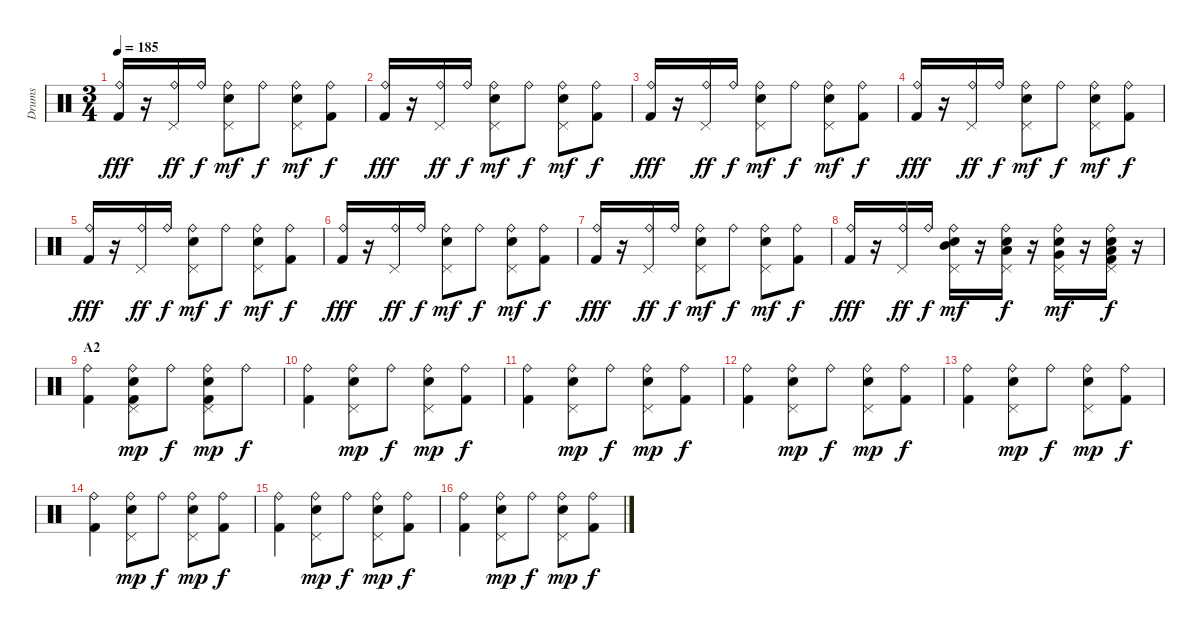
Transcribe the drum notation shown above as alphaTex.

\track ("Drums" "Drums") {instrument percussion}
\staff {score}
\articulation defaults
\ts (3 4)
\tempo 185
\clef neutral
\ks c
("Ride (bell)" "Kick (hit) 2").16{dy fff} r.16 ("Ride (bell)" "Pedal Hi-Hat (hit)").16{dy ff} "Ride (bell)".16{dy f} ("Ride (bell)" "Pedal Hi-Hat (hit)" "Electric Snare (hit)").8{dy mf} "Ride (bell)".8{dy f} ("Ride (bell)" "Pedal Hi-Hat (hit)" "Electric Snare (hit)").8{dy mf} ("Ride (bell)" "Kick (hit) 2").8{dy f} |
("Ride (bell)" "Kick (hit) 2").16{dy fff} r.16 ("Ride (bell)" "Pedal Hi-Hat (hit)").16{dy ff} "Ride (bell)".16{dy f} ("Ride (bell)" "Pedal Hi-Hat (hit)" "Electric Snare (hit)").8{dy mf} "Ride (bell)".8{dy f} ("Ride (bell)" "Pedal Hi-Hat (hit)" "Electric Snare (hit)").8{dy mf} ("Ride (bell)" "Kick (hit) 2").8{dy f} |
("Ride (bell)" "Kick (hit) 2").16{dy fff} r.16 ("Ride (bell)" "Pedal Hi-Hat (hit)").16{dy ff} "Ride (bell)".16{dy f} ("Ride (bell)" "Pedal Hi-Hat (hit)" "Electric Snare (hit)").8{dy mf} "Ride (bell)".8{dy f} ("Ride (bell)" "Pedal Hi-Hat (hit)" "Electric Snare (hit)").8{dy mf} ("Ride (bell)" "Kick (hit) 2").8{dy f} |
("Ride (bell)" "Kick (hit) 2").16{dy fff} r.16 ("Ride (bell)" "Pedal Hi-Hat (hit)").16{dy ff} "Ride (bell)".16{dy f} ("Ride (bell)" "Pedal Hi-Hat (hit)" "Electric Snare (hit)").8{dy mf} "Ride (bell)".8{dy f} ("Ride (bell)" "Pedal Hi-Hat (hit)" "Electric Snare (hit)").8{dy mf} ("Ride (bell)" "Kick (hit) 2").8{dy f} |
("Ride (bell)" "Kick (hit) 2").16{dy fff} r.16 ("Ride (bell)" "Pedal Hi-Hat (hit)").16{dy ff} "Ride (bell)".16{dy f} ("Ride (bell)" "Pedal Hi-Hat (hit)" "Electric Snare (hit)").8{dy mf} "Ride (bell)".8{dy f} ("Ride (bell)" "Pedal Hi-Hat (hit)" "Electric Snare (hit)").8{dy mf} ("Ride (bell)" "Kick (hit) 2").8{dy f} |
("Ride (bell)" "Kick (hit) 2").16{dy fff} r.16 ("Ride (bell)" "Pedal Hi-Hat (hit)").16{dy ff} "Ride (bell)".16{dy f} ("Ride (bell)" "Pedal Hi-Hat (hit)" "Electric Snare (hit)").8{dy mf} "Ride (bell)".8{dy f} ("Ride (bell)" "Pedal Hi-Hat (hit)" "Electric Snare (hit)").8{dy mf} ("Ride (bell)" "Kick (hit) 2").8{dy f} |
("Ride (bell)" "Kick (hit) 2").16{dy fff} r.16 ("Ride (bell)" "Pedal Hi-Hat (hit)").16{dy ff} "Ride (bell)".16{dy f} ("Ride (bell)" "Pedal Hi-Hat (hit)" "Electric Snare (hit)").8{dy mf} "Ride (bell)".8{dy f} ("Ride (bell)" "Pedal Hi-Hat (hit)" "Electric Snare (hit)").8{dy mf} ("Ride (bell)" "Kick (hit) 2").8{dy f} |
("Ride (bell)" "Kick (hit) 2").16{dy fff} r.16 ("Ride (bell)" "Pedal Hi-Hat (hit)").16{dy ff} "Ride (bell)".16{dy f} ("Ride (bell)" "Pedal Hi-Hat (hit)" "Mid Tom (hit)" "Electric Snare (hit)").16{dy mf} r.16 ("Ride (bell)" "Pedal Hi-Hat (hit)" "Low Tom (hit)" "Electric Snare (hit)").16{dy f} r.16 ("Ride (bell)" "Pedal Hi-Hat (hit)" "Very Low Tom (hit)" "Electric Snare (hit)").16{dy mf} r.16 ("Ride (bell)" "Pedal Hi-Hat (hit)" "Low Floor Tom (hit)" "Electric Snare (hit)" "Kick (hit) 2").16{dy f} r.16 |
\section ("" "A2")
("Ride (bell)" "Kick (hit) 2").4 ("Ride (bell)" "Pedal Hi-Hat (hit)" "Electric Snare (hit)" "Kick (hit) 2").8{dy mp} "Ride (bell)".8{dy f} ("Ride (bell)" "Pedal Hi-Hat (hit)" "Electric Snare (hit)" "Kick (hit) 2").8{dy mp} "Ride (bell)".8{dy f} |
("Ride (bell)" "Kick (hit) 2").4 ("Ride (bell)" "Pedal Hi-Hat (hit)" "Electric Snare (hit)").8{dy mp} "Ride (bell)".8{dy f} ("Ride (bell)" "Pedal Hi-Hat (hit)" "Electric Snare (hit)").8{dy mp} ("Ride (bell)" "Kick (hit) 2").8{dy f} |
("Ride (bell)" "Kick (hit) 2").4 ("Ride (bell)" "Pedal Hi-Hat (hit)" "Electric Snare (hit)").8{dy mp} "Ride (bell)".8{dy f} ("Ride (bell)" "Pedal Hi-Hat (hit)" "Electric Snare (hit)").8{dy mp} ("Ride (bell)" "Kick (hit) 2").8{dy f} |
("Ride (bell)" "Kick (hit) 2").4 ("Ride (bell)" "Pedal Hi-Hat (hit)" "Electric Snare (hit)").8{dy mp} "Ride (bell)".8{dy f} ("Ride (bell)" "Pedal Hi-Hat (hit)" "Electric Snare (hit)").8{dy mp} ("Ride (bell)" "Kick (hit) 2").8{dy f} |
("Ride (bell)" "Kick (hit) 2").4 ("Ride (bell)" "Pedal Hi-Hat (hit)" "Electric Snare (hit)").8{dy mp} "Ride (bell)".8{dy f} ("Ride (bell)" "Pedal Hi-Hat (hit)" "Electric Snare (hit)").8{dy mp} ("Ride (bell)" "Kick (hit) 2").8{dy f} |
("Ride (bell)" "Kick (hit) 2").4 ("Ride (bell)" "Pedal Hi-Hat (hit)" "Electric Snare (hit)").8{dy mp} "Ride (bell)".8{dy f} ("Ride (bell)" "Pedal Hi-Hat (hit)" "Electric Snare (hit)").8{dy mp} ("Ride (bell)" "Kick (hit) 2").8{dy f} |
("Ride (bell)" "Kick (hit) 2").4 ("Ride (bell)" "Pedal Hi-Hat (hit)" "Electric Snare (hit)").8{dy mp} "Ride (bell)".8{dy f} ("Ride (bell)" "Pedal Hi-Hat (hit)" "Electric Snare (hit)").8{dy mp} ("Ride (bell)" "Kick (hit) 2").8{dy f} |
("Ride (bell)" "Kick (hit) 2").4 ("Ride (bell)" "Pedal Hi-Hat (hit)" "Electric Snare (hit)").8{dy mp} "Ride (bell)".8{dy f} ("Ride (bell)" "Pedal Hi-Hat (hit)" "Electric Snare (hit)").8{dy mp} ("Ride (bell)" "Kick (hit) 2").8{dy f}
